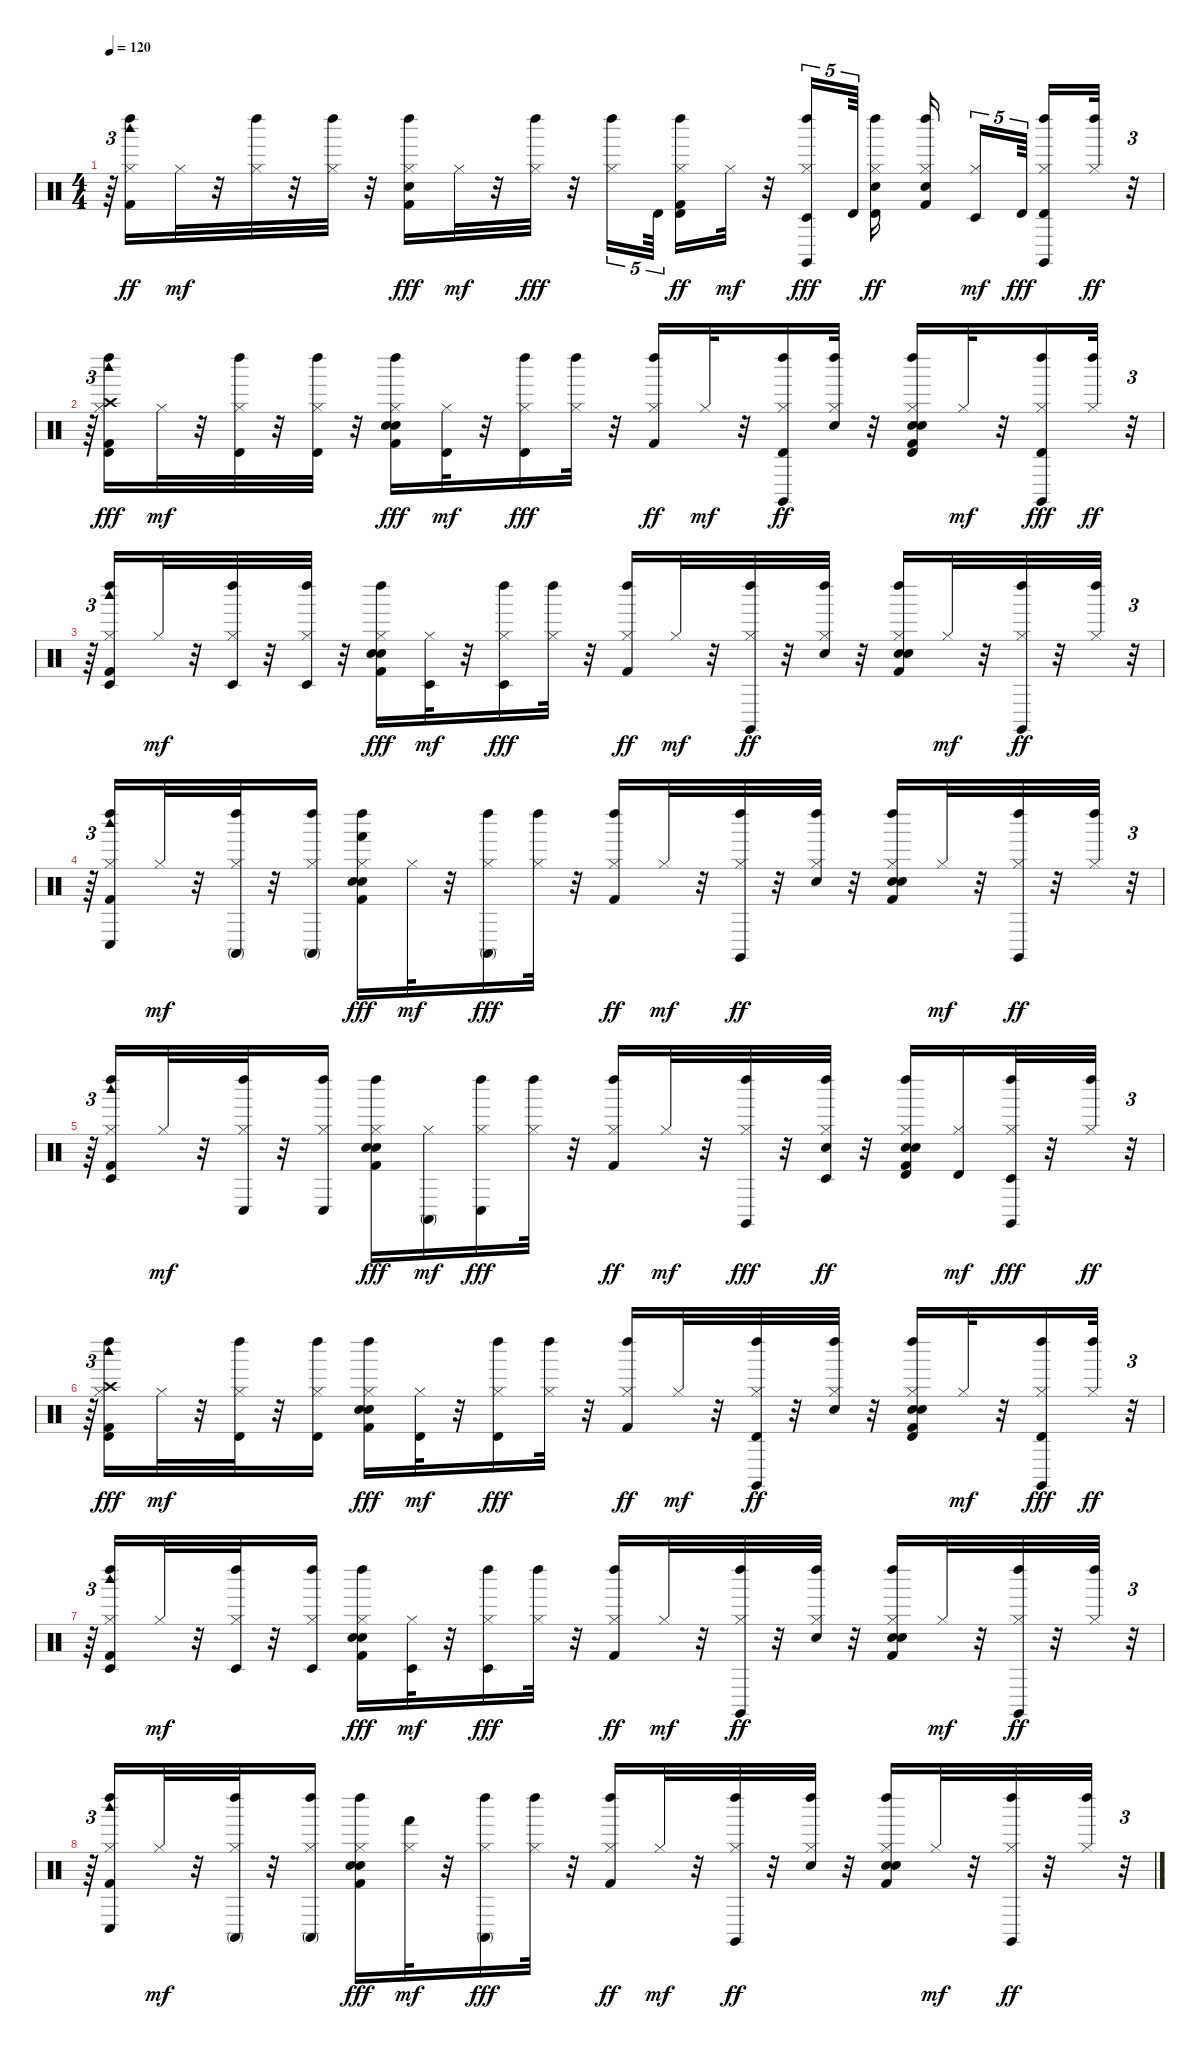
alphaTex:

\track "" {instrument percussion}
\staff {score}
\articulation defaults
\ts (4 4)
\tempo 120
\clef neutral
\ks c
r.64{tu (3 2) dy ff} ("Kick (hit) 2" "Hi-Hat (closed)" "Left Maraca (hit)" "Woodblock high (hit)").16 "Hi-Hat (closed)".32{dy mf} r.32 ("Hi-Hat (closed)" "Left Maraca (hit)").32 r.32 ("Hi-Hat (closed)" "Left Maraca (hit)").32 r.32 ("Kick (hit) 2" "Electric Snare (hit)" "Hi-Hat (closed)" "Left Maraca (hit)").16{dy fff} "Hi-Hat (closed)".32{dy mf} r.32 ("Hi-Hat (closed)" "Left Maraca (hit)").32{dy fff} r.32 ("Hi-Hat (closed)" "Left Maraca (hit)").16{tu (5 4)} "Timbale high (hit)".64{tu (5 4)} ("Kick (hit) 2" "Timbale high (hit)" "Hi-Hat (closed)" "Left Maraca (hit)").16{dy ff} "Hi-Hat (closed)".32{dy mf} r.32 ("Timbale low (hit)" "Hi-Hat (closed)" "Left Maraca (hit)" "Claves (hit)").16{tu (5 4) dy fff} "Timbale high (hit)".64{tu (5 4) beam splitsecondary} ("Electric Snare (hit)" "Timbale high (hit)" "Hi-Hat (closed)" "Left Maraca (hit)").16{dy ff} ("Kick (hit) 2" "Electric Snare (hit)" "Hi-Hat (closed)" "Left Maraca (hit)").16{beam splitsecondary} ("Timbale low (hit)" "Hi-Hat (closed)").16{tu (5 4) dy mf} "Timbale high (hit)".64{tu (5 4) dy fff beam splitsecondary} ("Timbale high (hit)" "Hi-Hat (closed)" "Left Maraca (hit)" "Claves (hit)").16 ("Hi-Hat (closed)" "Left Maraca (hit)").32{dy ff} r.32{tu (3 2)} |
r.64{tu (3 2)} ("Timbale high (hit)" "Kick (hit) 2" "Hi-Hat (closed)" "Left Maraca (hit)" "Crash high (hit)" "Woodblock high (hit)").16{dy fff} "Hi-Hat (closed)".32{dy mf} r.32 ("Timbale high (hit)" "Hi-Hat (closed)" "Left Maraca (hit)").32 r.32 ("Timbale high (hit)" "Hi-Hat (closed)" "Left Maraca (hit)").32 r.32 ("Kick (hit) 2" "Electric Snare (hit)" "Hand Clap (hit)" "Hi-Hat (closed)" "Left Maraca (hit)").16{dy fff} ("Timbale high (hit)" "Hi-Hat (closed)").32{dy mf} r.32 ("Timbale high (hit)" "Hi-Hat (closed)" "Left Maraca (hit)").16{dy fff} ("Hi-Hat (closed)" "Left Maraca (hit)").32 r.32 ("Kick (hit) 2" "Hi-Hat (closed)" "Left Maraca (hit)").16{dy ff} "Hi-Hat (closed)".32{dy mf} r.32 ("Timbale high (hit)" "Hi-Hat (closed)" "Left Maraca (hit)" "Claves (hit)").16{dy ff} ("Electric Snare (hit)" "Hi-Hat (closed)" "Left Maraca (hit)").32 r.32 ("Timbale high (hit)" "Kick (hit) 2" "Electric Snare (hit)" "Hand Clap (hit)" "Hi-Hat (closed)" "Left Maraca (hit)").16 "Hi-Hat (closed)".32{dy mf} r.32 ("Timbale high (hit)" "Hi-Hat (closed)" "Left Maraca (hit)" "Claves (hit)").16{dy fff} ("Hi-Hat (closed)" "Left Maraca (hit)").32{dy ff} r.32{tu (3 2)} |
r.64{tu (3 2)} ("Timbale low (hit)" "Kick (hit) 2" "Hi-Hat (closed)" "Left Maraca (hit)" "Woodblock high (hit)").16 "Hi-Hat (closed)".32{dy mf} r.32 ("Timbale low (hit)" "Hi-Hat (closed)" "Left Maraca (hit)").32 r.32 ("Timbale low (hit)" "Hi-Hat (closed)" "Left Maraca (hit)").32 r.32 ("Kick (hit) 2" "Electric Snare (hit)" "Hand Clap (hit)" "Hi-Hat (closed)" "Left Maraca (hit)").16{dy fff} ("Timbale low (hit)" "Hi-Hat (closed)").32{dy mf} r.32 ("Timbale low (hit)" "Hi-Hat (closed)" "Left Maraca (hit)").16{dy fff} ("Hi-Hat (closed)" "Left Maraca (hit)").32 r.32 ("Kick (hit) 2" "Hi-Hat (closed)" "Left Maraca (hit)").16{dy ff} "Hi-Hat (closed)".32{dy mf} r.32 ("Hi-Hat (closed)" "Left Maraca (hit)" "Claves (hit)").32{dy ff} r.32 ("Electric Snare (hit)" "Hi-Hat (closed)" "Left Maraca (hit)").32 r.32 ("Kick (hit) 2" "Electric Snare (hit)" "Hand Clap (hit)" "Hi-Hat (closed)" "Left Maraca (hit)").16 "Hi-Hat (closed)".32{dy mf} r.32 ("Hi-Hat (closed)" "Left Maraca (hit)" "Claves (hit)").32{dy ff} r.32 ("Hi-Hat (closed)" "Left Maraca (hit)").32 r.32{tu (3 2)} |
r.64{tu (3 2)} ("Conga low (hit)" "Kick (hit) 2" "Hi-Hat (closed)" "Left Maraca (hit)" "Woodblock high (hit)").16 "Hi-Hat (closed)".32{dy mf} r.32 ("Conga high (mute)" "Hi-Hat (closed)" "Left Maraca (hit)").32 r.32 ("Conga high (mute)" "Hi-Hat (closed)" "Left Maraca (hit)").16 ("Hand (hit)" "Kick (hit) 2" "Electric Snare (hit)" "Hand Clap (hit)" "Hi-Hat (closed)" "Left Maraca (hit)").16{dy fff} "Hi-Hat (closed)".32{dy mf} r.32 ("Conga high (mute)" "Hi-Hat (closed)" "Left Maraca (hit)").16{dy fff} ("Hi-Hat (closed)" "Left Maraca (hit)").32 r.32 ("Kick (hit) 2" "Hi-Hat (closed)" "Left Maraca (hit)").16{dy ff} "Hi-Hat (closed)".32{dy mf} r.32 ("Hi-Hat (closed)" "Left Maraca (hit)" "Claves (hit)").32{dy ff} r.32 ("Electric Snare (hit)" "Hi-Hat (closed)" "Left Maraca (hit)").32 r.32 ("Kick (hit) 2" "Electric Snare (hit)" "Hand Clap (hit)" "Hi-Hat (closed)" "Left Maraca (hit)").16 "Hi-Hat (closed)".32{dy mf} r.32 ("Hi-Hat (closed)" "Left Maraca (hit)" "Claves (hit)").32{dy ff} r.32 ("Hi-Hat (closed)" "Left Maraca (hit)").32 r.32{tu (3 2)} |
r.64{tu (3 2)} ("Timbale low (hit)" "Kick (hit) 2" "Hi-Hat (closed)" "Left Maraca (hit)" "Woodblock high (hit)").16 "Hi-Hat (closed)".32{dy mf} r.32 ("Conga low (hit)" "Hi-Hat (closed)" "Left Maraca (hit)").32 r.32 ("Conga low (hit)" "Hi-Hat (closed)" "Left Maraca (hit)").16 ("Kick (hit) 2" "Electric Snare (hit)" "Hand Clap (hit)" "Hi-Hat (closed)" "Left Maraca (hit)").16{dy fff} ("Conga high (mute)" "Hi-Hat (closed)").16{dy mf} ("Conga low (hit)" "Hi-Hat (closed)" "Left Maraca (hit)").16{dy fff} ("Hi-Hat (closed)" "Left Maraca (hit)").32 r.32 ("Kick (hit) 2" "Hi-Hat (closed)" "Left Maraca (hit)").16{dy ff} "Hi-Hat (closed)".32{dy mf} r.32 ("Hi-Hat (closed)" "Left Maraca (hit)" "Claves (hit)").32{dy fff} r.32 ("Electric Snare (hit)" "Timbale low (hit)" "Hi-Hat (closed)" "Left Maraca (hit)").32{dy ff} r.32 ("Kick (hit) 2" "Electric Snare (hit)" "Hand Clap (hit)" "Timbale high (hit)" "Hi-Hat (closed)" "Left Maraca (hit)").16 ("Timbale high (hit)" "Hi-Hat (closed)").16{dy mf} ("Timbale low (hit)" "Hi-Hat (closed)" "Left Maraca (hit)" "Claves (hit)").32{dy fff} r.32 ("Hi-Hat (closed)" "Left Maraca (hit)").32{dy ff} r.32{tu (3 2)} |
r.64{tu (3 2)} ("Timbale high (hit)" "Kick (hit) 2" "Hi-Hat (closed)" "Left Maraca (hit)" "Crash high (hit)" "Woodblock high (hit)").16{dy fff} "Hi-Hat (closed)".32{dy mf} r.32 ("Timbale high (hit)" "Hi-Hat (closed)" "Left Maraca (hit)").32 r.32 ("Timbale high (hit)" "Hi-Hat (closed)" "Left Maraca (hit)").16 ("Kick (hit) 2" "Electric Snare (hit)" "Hand Clap (hit)" "Hi-Hat (closed)" "Left Maraca (hit)").16{dy fff} ("Timbale high (hit)" "Hi-Hat (closed)").32{dy mf} r.32 ("Timbale high (hit)" "Hi-Hat (closed)" "Left Maraca (hit)").16{dy fff} ("Hi-Hat (closed)" "Left Maraca (hit)").32 r.32 ("Kick (hit) 2" "Hi-Hat (closed)" "Left Maraca (hit)").16{dy ff} "Hi-Hat (closed)".32{dy mf} r.32 ("Timbale high (hit)" "Hi-Hat (closed)" "Left Maraca (hit)" "Claves (hit)").32{dy ff} r.32 ("Electric Snare (hit)" "Hi-Hat (closed)" "Left Maraca (hit)").32 r.32 ("Timbale high (hit)" "Kick (hit) 2" "Electric Snare (hit)" "Hand Clap (hit)" "Hi-Hat (closed)" "Left Maraca (hit)").16 "Hi-Hat (closed)".32{dy mf} r.32 ("Timbale high (hit)" "Hi-Hat (closed)" "Left Maraca (hit)" "Claves (hit)").16{dy fff} ("Hi-Hat (closed)" "Left Maraca (hit)").32{dy ff} r.32{tu (3 2)} |
r.64{tu (3 2)} ("Timbale low (hit)" "Kick (hit) 2" "Hi-Hat (closed)" "Left Maraca (hit)" "Woodblock high (hit)").16 "Hi-Hat (closed)".32{dy mf} r.32 ("Timbale low (hit)" "Hi-Hat (closed)" "Left Maraca (hit)").32 r.32 ("Timbale low (hit)" "Hi-Hat (closed)" "Left Maraca (hit)").16 ("Kick (hit) 2" "Electric Snare (hit)" "Hand Clap (hit)" "Hi-Hat (closed)" "Left Maraca (hit)").16{dy fff} ("Timbale low (hit)" "Hi-Hat (closed)").32{dy mf} r.32 ("Timbale low (hit)" "Hi-Hat (closed)" "Left Maraca (hit)").16{dy fff} ("Hi-Hat (closed)" "Left Maraca (hit)").32 r.32 ("Kick (hit) 2" "Hi-Hat (closed)" "Left Maraca (hit)").16{dy ff} "Hi-Hat (closed)".32{dy mf} r.32 ("Hi-Hat (closed)" "Left Maraca (hit)" "Claves (hit)").32{dy ff} r.32 ("Electric Snare (hit)" "Hi-Hat (closed)" "Left Maraca (hit)").32 r.32 ("Kick (hit) 2" "Electric Snare (hit)" "Hand Clap (hit)" "Hi-Hat (closed)" "Left Maraca (hit)").16 "Hi-Hat (closed)".32{dy mf} r.32 ("Hi-Hat (closed)" "Left Maraca (hit)" "Claves (hit)").32{dy ff} r.32 ("Hi-Hat (closed)" "Left Maraca (hit)").32 r.32{tu (3 2)} |
r.64{tu (3 2)} ("Conga low (hit)" "Kick (hit) 2" "Hi-Hat (closed)" "Left Maraca (hit)" "Woodblock high (hit)").16 "Hi-Hat (closed)".32{dy mf} r.32 ("Conga high (mute)" "Hi-Hat (closed)" "Left Maraca (hit)").32 r.32 ("Conga high (mute)" "Hi-Hat (closed)" "Left Maraca (hit)").16 ("Kick (hit) 2" "Electric Snare (hit)" "Hand Clap (hit)" "Hi-Hat (closed)" "Left Maraca (hit)").16{dy fff} ("Hand (hit)" "Hi-Hat (closed)").32{dy mf} r.32 ("Conga high (mute)" "Hi-Hat (closed)" "Left Maraca (hit)").16{dy fff} ("Hi-Hat (closed)" "Left Maraca (hit)").32 r.32 ("Kick (hit) 2" "Hi-Hat (closed)" "Left Maraca (hit)").16{dy ff} "Hi-Hat (closed)".32{dy mf} r.32 ("Hi-Hat (closed)" "Left Maraca (hit)" "Claves (hit)").32{dy ff} r.32 ("Electric Snare (hit)" "Hi-Hat (closed)" "Left Maraca (hit)").32 r.32 ("Kick (hit) 2" "Electric Snare (hit)" "Hand Clap (hit)" "Hi-Hat (closed)" "Left Maraca (hit)").16 "Hi-Hat (closed)".32{dy mf} r.32 ("Hi-Hat (closed)" "Left Maraca (hit)" "Claves (hit)").32{dy ff} r.32 ("Hi-Hat (closed)" "Left Maraca (hit)").32 r.32{tu (3 2)}
